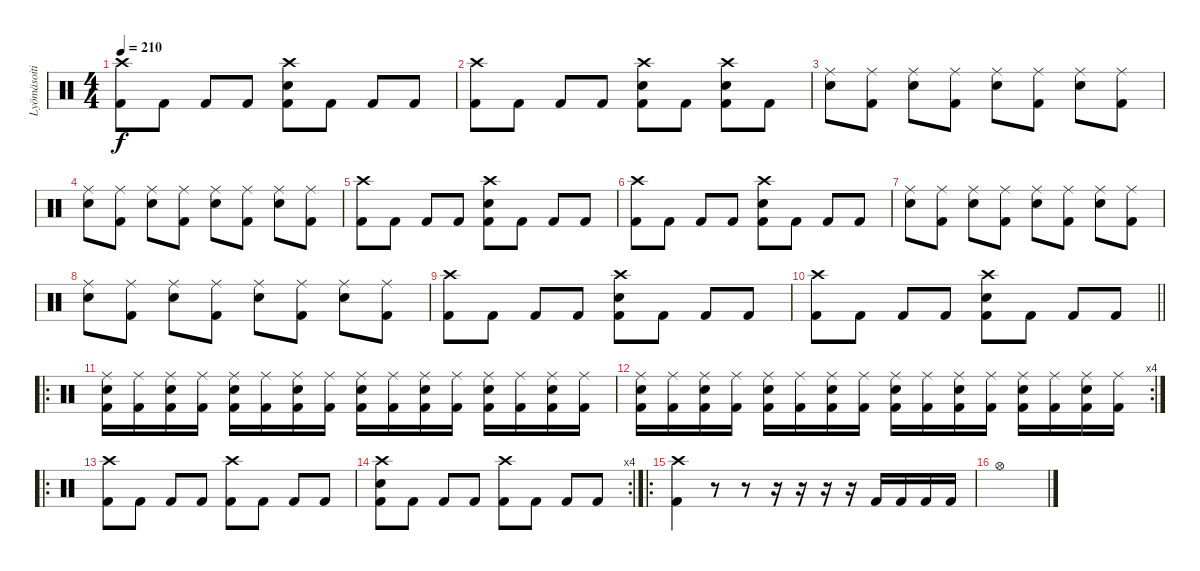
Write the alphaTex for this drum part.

\track ("Lyömäsoitin" "Lyömäsoiti") {instrument percussion}
\staff {score}
\articulation defaults
\ts (4 4)
\tempo 210
\clef neutral
\ks c
("Crash high (hit)" "Kick (hit) 2").8{dy f} "Kick (hit) 2".8 "Kick (hit) 2".8 "Kick (hit) 2".8 ("Crash high (hit)" "Electric Snare (hit)" "Kick (hit) 2").8 "Kick (hit) 2".8 "Kick (hit) 2".8 "Kick (hit) 2".8 |
("Crash high (hit)" "Kick (hit) 2").8 "Kick (hit) 2".8 "Kick (hit) 2".8 "Kick (hit) 2".8 ("Crash high (hit)" "Electric Snare (hit)" "Kick (hit) 2").8 "Kick (hit) 2".8 ("Crash high (hit)" "Electric Snare (hit)" "Kick (hit) 2").8 "Kick (hit) 2".8 |
("Ride (middle)" "Electric Snare (hit)").8 ("Ride (middle)" "Kick (hit) 2").8 ("Ride (middle)" "Electric Snare (hit)").8 ("Ride (middle)" "Kick (hit) 2").8 ("Ride (middle)" "Electric Snare (hit)").8 ("Ride (middle)" "Kick (hit) 2").8 ("Ride (middle)" "Electric Snare (hit)").8 ("Ride (middle)" "Kick (hit) 2").8 |
("Ride (middle)" "Electric Snare (hit)").8 ("Ride (middle)" "Kick (hit) 2").8 ("Ride (middle)" "Electric Snare (hit)").8 ("Ride (middle)" "Kick (hit) 2").8 ("Ride (middle)" "Electric Snare (hit)").8 ("Ride (middle)" "Kick (hit) 2").8 ("Ride (middle)" "Electric Snare (hit)").8 ("Ride (middle)" "Kick (hit) 2").8 |
("Crash high (hit)" "Kick (hit) 2").8 "Kick (hit) 2".8 "Kick (hit) 2".8 "Kick (hit) 2".8 ("Crash high (hit)" "Electric Snare (hit)" "Kick (hit) 2").8 "Kick (hit) 2".8 "Kick (hit) 2".8 "Kick (hit) 2".8 |
("Crash high (hit)" "Kick (hit) 2").8 "Kick (hit) 2".8 "Kick (hit) 2".8 "Kick (hit) 2".8 ("Crash high (hit)" "Electric Snare (hit)" "Kick (hit) 2").8 "Kick (hit) 2".8 "Kick (hit) 2".8 "Kick (hit) 2".8 |
("Ride (middle)" "Electric Snare (hit)").8 ("Ride (middle)" "Kick (hit) 2").8 ("Ride (middle)" "Electric Snare (hit)").8 ("Ride (middle)" "Kick (hit) 2").8 ("Ride (middle)" "Electric Snare (hit)").8 ("Ride (middle)" "Kick (hit) 2").8 ("Ride (middle)" "Electric Snare (hit)").8 ("Ride (middle)" "Kick (hit) 2").8 |
("Ride (middle)" "Electric Snare (hit)").8 ("Ride (middle)" "Kick (hit) 2").8 ("Ride (middle)" "Electric Snare (hit)").8 ("Ride (middle)" "Kick (hit) 2").8 ("Ride (middle)" "Electric Snare (hit)").8 ("Ride (middle)" "Kick (hit) 2").8 ("Ride (middle)" "Electric Snare (hit)").8 ("Ride (middle)" "Kick (hit) 2").8 |
("Crash high (hit)" "Kick (hit) 2").8 "Kick (hit) 2".8 "Kick (hit) 2".8 "Kick (hit) 2".8 ("Crash high (hit)" "Electric Snare (hit)" "Kick (hit) 2").8 "Kick (hit) 2".8 "Kick (hit) 2".8 "Kick (hit) 2".8 |
\barLineRight lightlight
("Crash high (hit)" "Kick (hit) 2").8 "Kick (hit) 2".8 "Kick (hit) 2".8 "Kick (hit) 2".8 ("Crash high (hit)" "Electric Snare (hit)" "Kick (hit) 2").8 "Kick (hit) 2".8 "Kick (hit) 2".8 "Kick (hit) 2".8 |
\ro
("Ride (middle)" "Electric Snare (hit)" "Kick (hit) 2").16 ("Ride (middle)" "Kick (hit) 2").16 ("Ride (middle)" "Electric Snare (hit)" "Kick (hit) 2").16 ("Ride (middle)" "Kick (hit) 2").16 ("Ride (middle)" "Electric Snare (hit)" "Kick (hit) 2").16 ("Ride (middle)" "Kick (hit) 2").16 ("Ride (middle)" "Electric Snare (hit)" "Kick (hit) 2").16 ("Ride (middle)" "Kick (hit) 2").16 ("Ride (middle)" "Electric Snare (hit)" "Kick (hit) 2").16 ("Ride (middle)" "Kick (hit) 2").16 ("Ride (middle)" "Electric Snare (hit)" "Kick (hit) 2").16 ("Ride (middle)" "Kick (hit) 2").16 ("Ride (middle)" "Electric Snare (hit)" "Kick (hit) 2").16 ("Ride (middle)" "Kick (hit) 2").16 ("Ride (middle)" "Electric Snare (hit)" "Kick (hit) 2").16 ("Ride (middle)" "Kick (hit) 2").16 |
\rc 4
("Ride (middle)" "Electric Snare (hit)" "Kick (hit) 2").16 ("Ride (middle)" "Kick (hit) 2").16 ("Ride (middle)" "Electric Snare (hit)" "Kick (hit) 2").16 ("Ride (middle)" "Kick (hit) 2").16 ("Ride (middle)" "Electric Snare (hit)" "Kick (hit) 2").16 ("Ride (middle)" "Kick (hit) 2").16 ("Ride (middle)" "Electric Snare (hit)" "Kick (hit) 2").16 ("Ride (middle)" "Kick (hit) 2").16 ("Ride (middle)" "Electric Snare (hit)" "Kick (hit) 2").16 ("Ride (middle)" "Kick (hit) 2").16 ("Ride (middle)" "Electric Snare (hit)" "Kick (hit) 2").16 ("Ride (middle)" "Kick (hit) 2").16 ("Ride (middle)" "Electric Snare (hit)" "Kick (hit) 2").16 ("Ride (middle)" "Kick (hit) 2").16 ("Ride (middle)" "Electric Snare (hit)" "Kick (hit) 2").16 ("Ride (middle)" "Kick (hit) 2").16 |
\ro
("Crash high (hit)" "Kick (hit) 2").8 "Kick (hit) 2".8 "Kick (hit) 2".8 "Kick (hit) 2".8 ("Crash high (hit)" "Kick (hit) 2").8 "Kick (hit) 2".8 "Kick (hit) 2".8 "Kick (hit) 2".8 |
\rc 4
("Crash high (hit)" "Electric Snare (hit)" "Kick (hit) 2").8 "Kick (hit) 2".8 "Kick (hit) 2".8 "Kick (hit) 2".8 ("Crash high (hit)" "Kick (hit) 2").8 "Kick (hit) 2".8 "Kick (hit) 2".8 "Kick (hit) 2".8 |
\ro
("Crash high (hit)" "Kick (hit) 2").4 r.8 r.8 r.16 r.16 r.16 r.16 "Kick (hit) 2".16 "Kick (hit) 2".16 "Kick (hit) 2".16 "Kick (hit) 2".16 |
"Hi-Hat (open)".1
